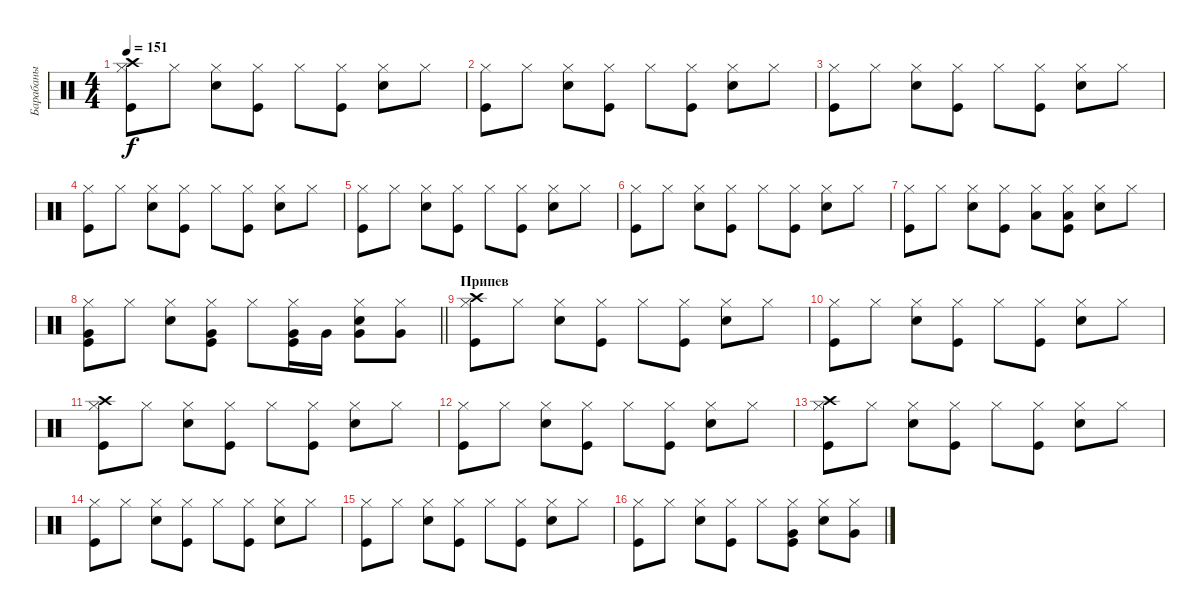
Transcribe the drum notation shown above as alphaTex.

\track ("Барабаны" "Барабаны") {instrument percussion}
\staff {score}
\articulation defaults
\ts (4 4)
\tempo 151
\clef neutral
\ks c
("Kick (hit)" "Hi-Hat (closed)" "Crash high (hit)").8{dy f} "Hi-Hat (closed)".8 ("Snare (hit) 2" "Hi-Hat (closed)").8 ("Kick (hit)" "Hi-Hat (closed)").8 "Hi-Hat (closed)".8 ("Kick (hit)" "Hi-Hat (closed)").8 ("Snare (hit) 2" "Hi-Hat (closed)").8 "Hi-Hat (closed)".8 |
("Kick (hit)" "Hi-Hat (closed)").8 "Hi-Hat (closed)".8 ("Snare (hit) 2" "Hi-Hat (closed)").8 ("Kick (hit)" "Hi-Hat (closed)").8 "Hi-Hat (closed)".8 ("Kick (hit)" "Hi-Hat (closed)").8 ("Snare (hit) 2" "Hi-Hat (closed)").8 "Hi-Hat (closed)".8 |
("Kick (hit)" "Hi-Hat (closed)").8 "Hi-Hat (closed)".8 ("Snare (hit) 2" "Hi-Hat (closed)").8 ("Kick (hit)" "Hi-Hat (closed)").8 "Hi-Hat (closed)".8 ("Kick (hit)" "Hi-Hat (closed)").8 ("Snare (hit) 2" "Hi-Hat (closed)").8 "Hi-Hat (closed)".8 |
("Kick (hit)" "Hi-Hat (closed)").8 "Hi-Hat (closed)".8 ("Snare (hit) 2" "Hi-Hat (closed)").8 ("Kick (hit)" "Hi-Hat (closed)").8 "Hi-Hat (closed)".8 ("Kick (hit)" "Hi-Hat (closed)").8 ("Snare (hit) 2" "Hi-Hat (closed)").8 "Hi-Hat (closed)".8 |
("Kick (hit)" "Hi-Hat (closed)").8 "Hi-Hat (closed)".8 ("Snare (hit) 2" "Hi-Hat (closed)").8 ("Kick (hit)" "Hi-Hat (closed)").8 "Hi-Hat (closed)".8 ("Kick (hit)" "Hi-Hat (closed)").8 ("Snare (hit) 2" "Hi-Hat (closed)").8 "Hi-Hat (closed)".8 |
("Kick (hit)" "Hi-Hat (closed)").8 "Hi-Hat (closed)".8 ("Snare (hit) 2" "Hi-Hat (closed)").8 ("Kick (hit)" "Hi-Hat (closed)").8 "Hi-Hat (closed)".8 ("Kick (hit)" "Hi-Hat (closed)").8 ("Snare (hit) 2" "Hi-Hat (closed)").8 "Hi-Hat (closed)".8 |
("Kick (hit)" "Hi-Hat (closed)").8 "Hi-Hat (closed)".8 ("Snare (hit) 2" "Hi-Hat (closed)").8 ("Kick (hit)" "Hi-Hat (closed)").8 ("Hi-Hat (closed)" "Low Tom (hit)").8 ("Kick (hit)" "Hi-Hat (closed)" "Low Tom (hit)").8 ("Snare (hit) 2" "Hi-Hat (closed)").8 "Hi-Hat (closed)".8 |
\barLineRight lightlight
("Kick (hit)" "Hi-Hat (closed)" "Very Low Tom (hit)").8 "Hi-Hat (closed)".8 ("Snare (hit) 2" "Hi-Hat (closed)").8 ("Kick (hit)" "Hi-Hat (closed)" "Very Low Tom (hit)").8 "Hi-Hat (closed)".8 ("Kick (hit)" "Hi-Hat (closed)" "Very Low Tom (hit)").16 "Very Low Tom (hit)".16 ("Snare (hit) 2" "Hi-Hat (closed)" "Very Low Tom (hit)").8 ("Hi-Hat (closed)" "Very Low Tom (hit)").8 |
\section ("" "Припев")
("Kick (hit)" "Hi-Hat (closed)" "Crash high (hit)").8 "Hi-Hat (closed)".8 ("Snare (hit) 2" "Hi-Hat (closed)").8 ("Kick (hit)" "Hi-Hat (closed)").8 "Hi-Hat (closed)".8 ("Kick (hit)" "Hi-Hat (closed)").8 ("Snare (hit) 2" "Hi-Hat (closed)").8 "Hi-Hat (closed)".8 |
("Kick (hit)" "Hi-Hat (closed)").8 "Hi-Hat (closed)".8 ("Snare (hit) 2" "Hi-Hat (closed)").8 ("Kick (hit)" "Hi-Hat (closed)").8 "Hi-Hat (closed)".8 ("Kick (hit)" "Hi-Hat (closed)").8 ("Snare (hit) 2" "Hi-Hat (closed)").8 "Hi-Hat (closed)".8 |
("Kick (hit)" "Hi-Hat (closed)" "Crash high (hit)").8 "Hi-Hat (closed)".8 ("Snare (hit) 2" "Hi-Hat (closed)").8 ("Kick (hit)" "Hi-Hat (closed)").8 "Hi-Hat (closed)".8 ("Kick (hit)" "Hi-Hat (closed)").8 ("Snare (hit) 2" "Hi-Hat (closed)").8 "Hi-Hat (closed)".8 |
("Kick (hit)" "Hi-Hat (closed)").8 "Hi-Hat (closed)".8 ("Snare (hit) 2" "Hi-Hat (closed)").8 ("Kick (hit)" "Hi-Hat (closed)").8 "Hi-Hat (closed)".8 ("Kick (hit)" "Hi-Hat (closed)").8 ("Snare (hit) 2" "Hi-Hat (closed)").8 "Hi-Hat (closed)".8 |
("Kick (hit)" "Hi-Hat (closed)" "Crash high (hit)").8 "Hi-Hat (closed)".8 ("Snare (hit) 2" "Hi-Hat (closed)").8 ("Kick (hit)" "Hi-Hat (closed)").8 "Hi-Hat (closed)".8 ("Kick (hit)" "Hi-Hat (closed)").8 ("Snare (hit) 2" "Hi-Hat (closed)").8 "Hi-Hat (closed)".8 |
("Kick (hit)" "Hi-Hat (closed)").8 "Hi-Hat (closed)".8 ("Snare (hit) 2" "Hi-Hat (closed)").8 ("Kick (hit)" "Hi-Hat (closed)").8 "Hi-Hat (closed)".8 ("Kick (hit)" "Hi-Hat (closed)").8 ("Snare (hit) 2" "Hi-Hat (closed)").8 "Hi-Hat (closed)".8 |
("Kick (hit)" "Hi-Hat (closed)").8 "Hi-Hat (closed)".8 ("Snare (hit) 2" "Hi-Hat (closed)").8 ("Kick (hit)" "Hi-Hat (closed)").8 "Hi-Hat (closed)".8 ("Kick (hit)" "Hi-Hat (closed)").8 ("Snare (hit) 2" "Hi-Hat (closed)").8 "Hi-Hat (closed)".8 |
("Kick (hit)" "Hi-Hat (closed)").8 "Hi-Hat (closed)".8 ("Snare (hit) 2" "Hi-Hat (closed)").8 ("Kick (hit)" "Hi-Hat (closed)").8 "Hi-Hat (closed)".8 ("Kick (hit)" "Hi-Hat (closed)" "Very Low Tom (hit)").8 ("Snare (hit) 2" "Hi-Hat (closed)").8 ("Hi-Hat (closed)" "Very Low Tom (hit)").8
